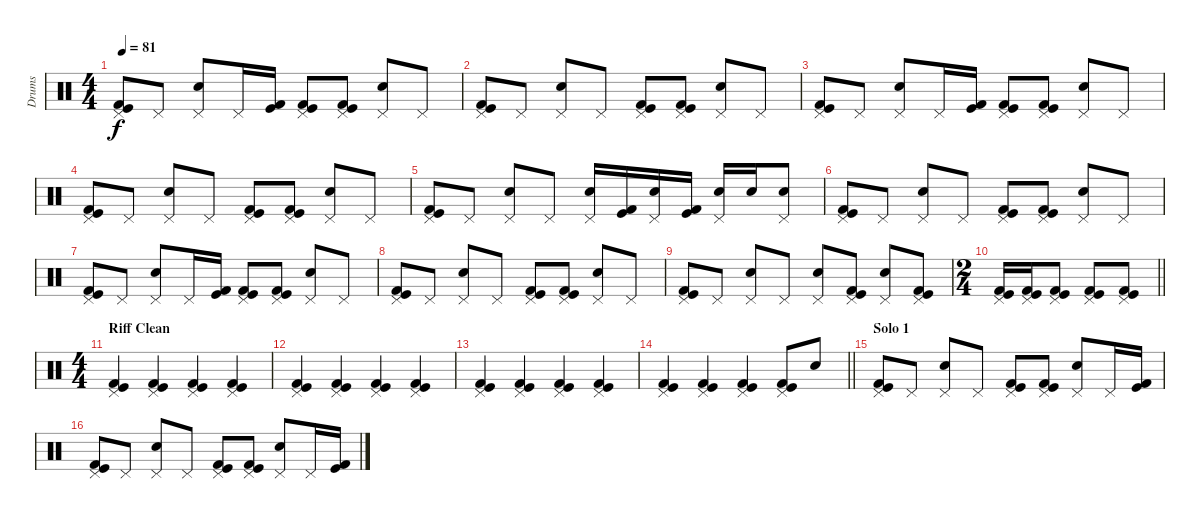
\track ("Drums" "Drums") {instrument percussion}
\staff {score}
\articulation defaults
\ts (4 4)
\tempo 81
\clef neutral
\ks c
("Pedal Hi-Hat (hit)" "Kick (hit)" "Kick (hit) 2").8{dy f} "Pedal Hi-Hat (hit)".8 ("Pedal Hi-Hat (hit)" "Electric Snare (hit)").8 "Pedal Hi-Hat (hit)".16 ("Kick (hit)" "Kick (hit) 2").16 ("Pedal Hi-Hat (hit)" "Kick (hit)" "Kick (hit) 2").8 ("Pedal Hi-Hat (hit)" "Kick (hit)" "Kick (hit) 2").8 ("Pedal Hi-Hat (hit)" "Electric Snare (hit)").8 "Pedal Hi-Hat (hit)".8 |
("Pedal Hi-Hat (hit)" "Kick (hit)" "Kick (hit) 2").8 "Pedal Hi-Hat (hit)".8 ("Pedal Hi-Hat (hit)" "Electric Snare (hit)").8 "Pedal Hi-Hat (hit)".8 ("Pedal Hi-Hat (hit)" "Kick (hit)" "Kick (hit) 2").8 ("Pedal Hi-Hat (hit)" "Kick (hit)" "Kick (hit) 2").8 ("Pedal Hi-Hat (hit)" "Electric Snare (hit)").8 "Pedal Hi-Hat (hit)".8 |
("Pedal Hi-Hat (hit)" "Kick (hit)" "Kick (hit) 2").8 "Pedal Hi-Hat (hit)".8 ("Pedal Hi-Hat (hit)" "Electric Snare (hit)").8 "Pedal Hi-Hat (hit)".16 ("Kick (hit)" "Kick (hit) 2").16 ("Pedal Hi-Hat (hit)" "Kick (hit)" "Kick (hit) 2").8 ("Pedal Hi-Hat (hit)" "Kick (hit)" "Kick (hit) 2").8 ("Pedal Hi-Hat (hit)" "Electric Snare (hit)").8 "Pedal Hi-Hat (hit)".8 |
("Pedal Hi-Hat (hit)" "Kick (hit)" "Kick (hit) 2").8 "Pedal Hi-Hat (hit)".8 ("Pedal Hi-Hat (hit)" "Electric Snare (hit)").8 "Pedal Hi-Hat (hit)".8 ("Pedal Hi-Hat (hit)" "Kick (hit)" "Kick (hit) 2").8 ("Pedal Hi-Hat (hit)" "Kick (hit)" "Kick (hit) 2").8 ("Pedal Hi-Hat (hit)" "Electric Snare (hit)").8 "Pedal Hi-Hat (hit)".8 |
("Pedal Hi-Hat (hit)" "Kick (hit)" "Kick (hit) 2").8 "Pedal Hi-Hat (hit)".8 ("Pedal Hi-Hat (hit)" "Electric Snare (hit)").8 "Pedal Hi-Hat (hit)".8 ("Pedal Hi-Hat (hit)" "Electric Snare (hit)").16 ("Kick (hit)" "Kick (hit) 2").16 ("Pedal Hi-Hat (hit)" "Electric Snare (hit)").16 ("Kick (hit)" "Kick (hit) 2").16 ("Pedal Hi-Hat (hit)" "Electric Snare (hit)").16 "Electric Snare (hit)".16 ("Pedal Hi-Hat (hit)" "Electric Snare (hit)").8 |
("Pedal Hi-Hat (hit)" "Kick (hit)" "Kick (hit) 2").8 "Pedal Hi-Hat (hit)".8 ("Pedal Hi-Hat (hit)" "Electric Snare (hit)").8 "Pedal Hi-Hat (hit)".8 ("Pedal Hi-Hat (hit)" "Kick (hit)" "Kick (hit) 2").8 ("Pedal Hi-Hat (hit)" "Kick (hit)" "Kick (hit) 2").8 ("Pedal Hi-Hat (hit)" "Electric Snare (hit)").8 "Pedal Hi-Hat (hit)".8 |
("Pedal Hi-Hat (hit)" "Kick (hit)" "Kick (hit) 2").8 "Pedal Hi-Hat (hit)".8 ("Pedal Hi-Hat (hit)" "Electric Snare (hit)").8 "Pedal Hi-Hat (hit)".16 ("Kick (hit)" "Kick (hit) 2").16 ("Pedal Hi-Hat (hit)" "Kick (hit)" "Kick (hit) 2").8 ("Pedal Hi-Hat (hit)" "Kick (hit)" "Kick (hit) 2").8 ("Pedal Hi-Hat (hit)" "Electric Snare (hit)").8 "Pedal Hi-Hat (hit)".8 |
("Pedal Hi-Hat (hit)" "Kick (hit)" "Kick (hit) 2").8 "Pedal Hi-Hat (hit)".8 ("Pedal Hi-Hat (hit)" "Electric Snare (hit)").8 "Pedal Hi-Hat (hit)".8 ("Pedal Hi-Hat (hit)" "Kick (hit)" "Kick (hit) 2").8 ("Pedal Hi-Hat (hit)" "Kick (hit)" "Kick (hit) 2").8 ("Pedal Hi-Hat (hit)" "Electric Snare (hit)").8 "Pedal Hi-Hat (hit)".8 |
("Pedal Hi-Hat (hit)" "Kick (hit)" "Kick (hit) 2").8 "Pedal Hi-Hat (hit)".8 ("Pedal Hi-Hat (hit)" "Electric Snare (hit)").8 "Pedal Hi-Hat (hit)".8 ("Pedal Hi-Hat (hit)" "Electric Snare (hit)").8 ("Pedal Hi-Hat (hit)" "Kick (hit)" "Kick (hit) 2").8 ("Pedal Hi-Hat (hit)" "Electric Snare (hit)").8 ("Pedal Hi-Hat (hit)" "Kick (hit)" "Kick (hit) 2").8 |
\ts (2 4)
\barLineRight lightlight
("Pedal Hi-Hat (hit)" "Kick (hit)" "Kick (hit) 2").16 ("Pedal Hi-Hat (hit)" "Kick (hit)" "Kick (hit) 2").16 ("Pedal Hi-Hat (hit)" "Kick (hit)" "Kick (hit) 2").8 ("Pedal Hi-Hat (hit)" "Kick (hit)" "Kick (hit) 2").8 ("Pedal Hi-Hat (hit)" "Kick (hit)" "Kick (hit) 2").8 |
\ts (4 4)
\section ("" "Riff Clean")
("Pedal Hi-Hat (hit)" "Kick (hit)" "Kick (hit) 2").4 ("Pedal Hi-Hat (hit)" "Kick (hit)" "Kick (hit) 2").4 ("Pedal Hi-Hat (hit)" "Kick (hit)" "Kick (hit) 2").4 ("Pedal Hi-Hat (hit)" "Kick (hit)" "Kick (hit) 2").4 |
("Pedal Hi-Hat (hit)" "Kick (hit)" "Kick (hit) 2").4 ("Pedal Hi-Hat (hit)" "Kick (hit)" "Kick (hit) 2").4 ("Pedal Hi-Hat (hit)" "Kick (hit)" "Kick (hit) 2").4 ("Pedal Hi-Hat (hit)" "Kick (hit)" "Kick (hit) 2").4 |
("Pedal Hi-Hat (hit)" "Kick (hit)" "Kick (hit) 2").4 ("Pedal Hi-Hat (hit)" "Kick (hit)" "Kick (hit) 2").4 ("Pedal Hi-Hat (hit)" "Kick (hit)" "Kick (hit) 2").4 ("Pedal Hi-Hat (hit)" "Kick (hit)" "Kick (hit) 2").4 |
\barLineRight lightlight
("Pedal Hi-Hat (hit)" "Kick (hit)" "Kick (hit) 2").4 ("Pedal Hi-Hat (hit)" "Kick (hit)" "Kick (hit) 2").4 ("Pedal Hi-Hat (hit)" "Kick (hit)" "Kick (hit) 2").4 ("Pedal Hi-Hat (hit)" "Kick (hit)" "Kick (hit) 2").8 "Electric Snare (hit)".8 |
\section ("" "Solo 1")
("Pedal Hi-Hat (hit)" "Kick (hit)" "Kick (hit) 2").8 "Pedal Hi-Hat (hit)".8 ("Pedal Hi-Hat (hit)" "Electric Snare (hit)").8 "Pedal Hi-Hat (hit)".8 ("Pedal Hi-Hat (hit)" "Kick (hit)" "Kick (hit) 2").8 ("Pedal Hi-Hat (hit)" "Kick (hit)" "Kick (hit) 2").8 ("Pedal Hi-Hat (hit)" "Electric Snare (hit)").8 "Pedal Hi-Hat (hit)".16 ("Kick (hit)" "Kick (hit) 2").16 |
("Pedal Hi-Hat (hit)" "Kick (hit)" "Kick (hit) 2").8 "Pedal Hi-Hat (hit)".8 ("Pedal Hi-Hat (hit)" "Electric Snare (hit)").8 "Pedal Hi-Hat (hit)".8 ("Pedal Hi-Hat (hit)" "Kick (hit)" "Kick (hit) 2").8 ("Pedal Hi-Hat (hit)" "Kick (hit)" "Kick (hit) 2").8 ("Pedal Hi-Hat (hit)" "Electric Snare (hit)").8 "Pedal Hi-Hat (hit)".16 ("Kick (hit)" "Kick (hit) 2").16
